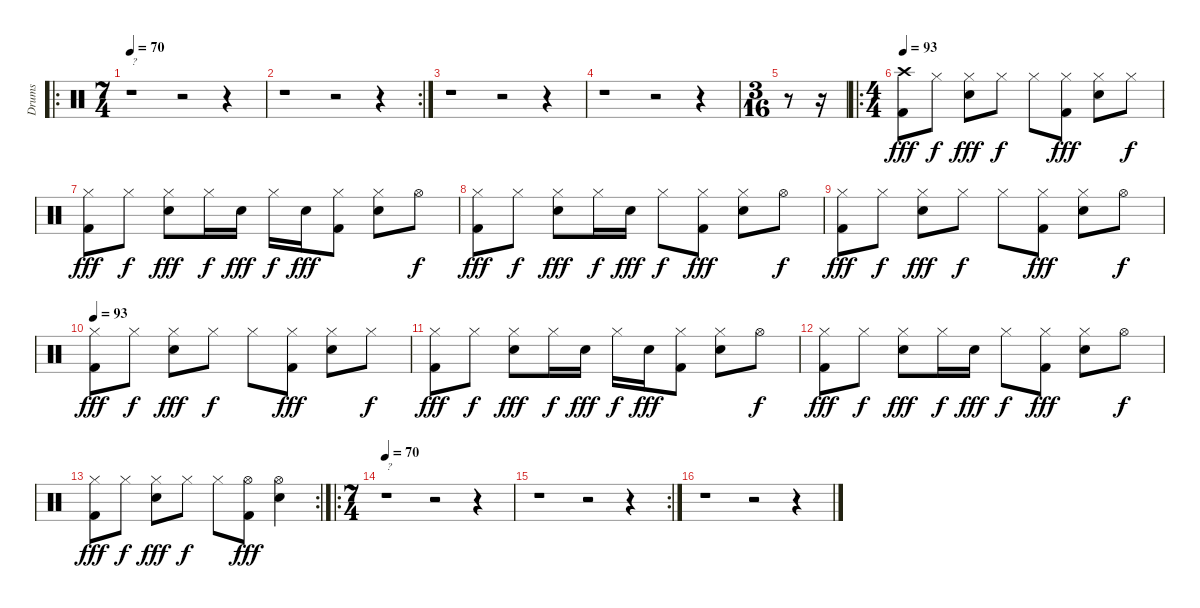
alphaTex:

\track ("Drums" "Drums") {instrument percussion}
\staff {score}
\articulation defaults
\ro
\ts (7 4)
\tempo 70
\clef neutral
\ks c
r.1{txt "?" dy fff} r.2 r.4 |
\rc 2
r.1 r.2 r.4 |
r.1 r.2 r.4 |
r.1 r.2 r.4 |
\ts (3 16)
r.8 r.16 |
\ro
\ts (4 4)
\tempo 93
("Crash high (hit)" "Kick (hit) 2").8 "Hi-Hat (closed)".8{dy f} ("Hi-Hat (closed)" "Electric Snare (hit)").8{dy fff} "Hi-Hat (closed)".8{dy f} "Hi-Hat (closed)".8 ("Hi-Hat (closed)" "Kick (hit) 2").8{dy fff} ("Hi-Hat (closed)" "Electric Snare (hit)").8 "Hi-Hat (closed)".8{dy f} |
("Hi-Hat (closed)" "Kick (hit) 2").8{dy fff} "Hi-Hat (closed)".8{dy f} ("Hi-Hat (closed)" "Electric Snare (hit)").8{dy fff} "Hi-Hat (closed)".16{dy f} "Electric Snare (hit)".16{dy fff} "Hi-Hat (closed)".16{dy f} "Electric Snare (hit)".16{dy fff} ("Hi-Hat (closed)" "Kick (hit) 2").8 ("Hi-Hat (closed)" "Electric Snare (hit)").8 "Hi-Hat (open)".8{dy f} |
("Hi-Hat (closed)" "Kick (hit) 2").8{dy fff} "Hi-Hat (closed)".8{dy f} ("Hi-Hat (closed)" "Electric Snare (hit)").8{dy fff} "Hi-Hat (closed)".16{dy f} "Electric Snare (hit)".16{dy fff} "Hi-Hat (closed)".8{dy f} ("Hi-Hat (closed)" "Kick (hit) 2").8{dy fff} ("Hi-Hat (closed)" "Electric Snare (hit)").8 "Hi-Hat (open)".8{dy f} |
("Hi-Hat (closed)" "Kick (hit) 2").8{dy fff} "Hi-Hat (closed)".8{dy f} ("Hi-Hat (closed)" "Electric Snare (hit)").8{dy fff} "Hi-Hat (closed)".8{dy f} "Hi-Hat (closed)".8 ("Hi-Hat (closed)" "Kick (hit) 2").8{dy fff} ("Hi-Hat (closed)" "Electric Snare (hit)").8 "Hi-Hat (open)".8{dy f} |
\tempo 93
("Hi-Hat (closed)" "Kick (hit) 2").8{dy fff} "Hi-Hat (closed)".8{dy f} ("Hi-Hat (closed)" "Electric Snare (hit)").8{dy fff} "Hi-Hat (closed)".8{dy f} "Hi-Hat (closed)".8 ("Hi-Hat (closed)" "Kick (hit) 2").8{dy fff} ("Hi-Hat (closed)" "Electric Snare (hit)").8 "Hi-Hat (closed)".8{dy f} |
("Hi-Hat (closed)" "Kick (hit) 2").8{dy fff} "Hi-Hat (closed)".8{dy f} ("Hi-Hat (closed)" "Electric Snare (hit)").8{dy fff} "Hi-Hat (closed)".16{dy f} "Electric Snare (hit)".16{dy fff} "Hi-Hat (closed)".16{dy f} "Electric Snare (hit)".16{dy fff} ("Hi-Hat (closed)" "Kick (hit) 2").8 ("Hi-Hat (closed)" "Electric Snare (hit)").8 "Hi-Hat (open)".8{dy f} |
("Hi-Hat (closed)" "Kick (hit) 2").8{dy fff} "Hi-Hat (closed)".8{dy f} ("Hi-Hat (closed)" "Electric Snare (hit)").8{dy fff} "Hi-Hat (closed)".16{dy f} "Electric Snare (hit)".16{dy fff} "Hi-Hat (closed)".8{dy f} ("Hi-Hat (closed)" "Kick (hit) 2").8{dy fff} ("Hi-Hat (closed)" "Electric Snare (hit)").8 "Hi-Hat (open)".8{dy f} |
\rc 2
("Hi-Hat (closed)" "Kick (hit) 2").8{dy fff} "Hi-Hat (closed)".8{dy f} ("Hi-Hat (closed)" "Electric Snare (hit)").8{dy fff} "Hi-Hat (closed)".8{dy f} "Hi-Hat (closed)".8 ("Hi-Hat (open)" "Kick (hit) 2").8{dy fff} ("Hi-Hat (open)" "Electric Snare (hit)").4 |
\ro
\ts (7 4)
\tempo 70
r.1{txt "?"} r.2 r.4 |
\rc 2
r.1 r.2 r.4 |
r.1 r.2 r.4
